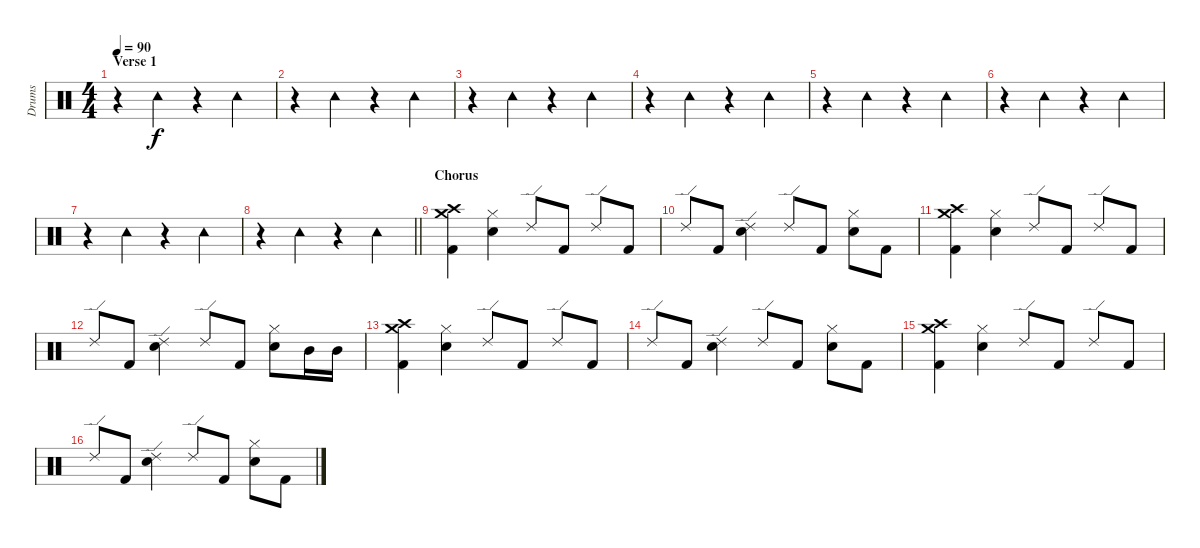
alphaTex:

\track ("Drums" "Drums") {instrument percussion}
\staff {score}
\articulation defaults
\ts (4 4)
\section ("" "Verse 1")
\tempo 90
\clef neutral
\ks c
r.4{dy f} "Tambourine (hit)".4 r.4 "Tambourine (hit)".4 |
r.4 "Tambourine (hit)".4 r.4 "Tambourine (hit)".4 |
r.4 "Tambourine (hit)".4 r.4 "Tambourine (hit)".4 |
r.4 "Tambourine (hit)".4 r.4 "Tambourine (hit)".4 |
r.4 "Tambourine (hit)".4 r.4 "Tambourine (hit)".4 |
r.4 "Tambourine (hit)".4 r.4 "Tambourine (hit)".4 |
r.4 "Tambourine (hit)".4 r.4 "Tambourine (hit)".4 |
\barLineRight lightlight
r.4 "Tambourine (hit)".4 r.4 "Tambourine (hit)".4 |
\section ("" "Chorus")
("Crash high (hit)" "Crash medium (hit)" "Kick (hit) 2").4 ("Hi-Hat (closed)" "Snare (hit) 2").4 "Ride (edge) 2".8 "Kick (hit) 2".8 "Ride (edge) 2".8 "Kick (hit) 2".8 |
"Ride (edge) 2".8 "Kick (hit) 2".8 ("Ride (edge) 2" "Snare (hit) 2").4 "Ride (edge) 2".8 "Kick (hit) 2".8 ("Hi-Hat (closed)" "Snare (hit) 2").8 "Kick (hit) 2".8 |
("Crash high (hit)" "Crash medium (hit)" "Kick (hit) 2").4 ("Hi-Hat (closed)" "Snare (hit) 2").4 "Ride (edge) 2".8 "Kick (hit) 2".8 "Ride (edge) 2".8 "Kick (hit) 2".8 |
"Ride (edge) 2".8 "Kick (hit) 2".8 ("Ride (edge) 2" "Snare (hit) 2").4 "Ride (edge) 2".8 "Kick (hit) 2".8 ("Hi-Hat (closed)" "Snare (hit) 2").8 "Mid Tom (hit)".16 "Mid Tom (hit)".16 |
("Crash high (hit)" "Crash medium (hit)" "Kick (hit) 2").4 ("Hi-Hat (closed)" "Snare (hit) 2").4 "Ride (edge) 2".8 "Kick (hit) 2".8 "Ride (edge) 2".8 "Kick (hit) 2".8 |
"Ride (edge) 2".8 "Kick (hit) 2".8 ("Ride (edge) 2" "Snare (hit) 2").4 "Ride (edge) 2".8 "Kick (hit) 2".8 ("Hi-Hat (closed)" "Snare (hit) 2").8 "Kick (hit) 2".8 |
("Crash high (hit)" "Crash medium (hit)" "Kick (hit) 2").4 ("Hi-Hat (closed)" "Snare (hit) 2").4 "Ride (edge) 2".8 "Kick (hit) 2".8 "Ride (edge) 2".8 "Kick (hit) 2".8 |
"Ride (edge) 2".8 "Kick (hit) 2".8 ("Ride (edge) 2" "Snare (hit) 2").4 "Ride (edge) 2".8 "Kick (hit) 2".8 ("Hi-Hat (closed)" "Snare (hit) 2").8 "Kick (hit) 2".8
